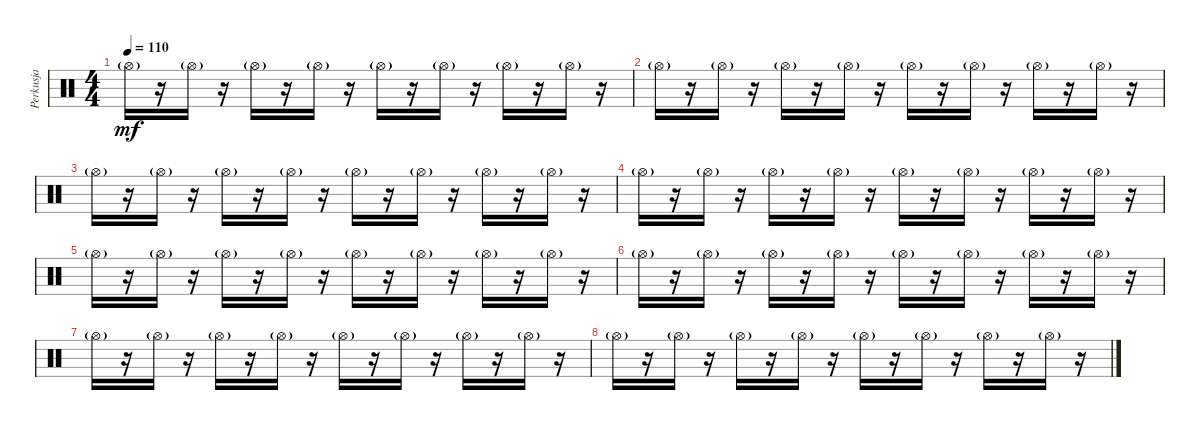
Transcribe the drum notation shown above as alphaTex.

\track ("Perkusja" "Perkusja") {instrument percussion}
\staff {score}
\articulation defaults
\ts (4 4)
\tempo 110
\clef neutral
\ks c "Hi-Hat (open)"{g}.16{dy mf}
r.16 "Hi-Hat (open)"{g}.16 r.16 "Hi-Hat (open)"{g}.16 r.16 "Hi-Hat (open)"{g}.16 r.16 "Hi-Hat (open)"{g}.16 r.16 "Hi-Hat (open)"{g}.16 r.16 "Hi-Hat (open)"{g}.16 r.16 "Hi-Hat (open)"{g}.16 r.16 |
"Hi-Hat (open)"{g}.16 r.16 "Hi-Hat (open)"{g}.16 r.16 "Hi-Hat (open)"{g}.16 r.16 "Hi-Hat (open)"{g}.16 r.16 "Hi-Hat (open)"{g}.16 r.16 "Hi-Hat (open)"{g}.16 r.16 "Hi-Hat (open)"{g}.16 r.16 "Hi-Hat (open)"{g}.16 r.16 |
"Hi-Hat (open)"{g}.16 r.16 "Hi-Hat (open)"{g}.16 r.16 "Hi-Hat (open)"{g}.16 r.16 "Hi-Hat (open)"{g}.16 r.16 "Hi-Hat (open)"{g}.16 r.16 "Hi-Hat (open)"{g}.16 r.16 "Hi-Hat (open)"{g}.16 r.16 "Hi-Hat (open)"{g}.16 r.16 |
"Hi-Hat (open)"{g}.16 r.16 "Hi-Hat (open)"{g}.16 r.16 "Hi-Hat (open)"{g}.16 r.16 "Hi-Hat (open)"{g}.16 r.16 "Hi-Hat (open)"{g}.16 r.16 "Hi-Hat (open)"{g}.16 r.16 "Hi-Hat (open)"{g}.16 r.16 "Hi-Hat (open)"{g}.16 r.16 |
"Hi-Hat (open)"{g}.16 r.16 "Hi-Hat (open)"{g}.16 r.16 "Hi-Hat (open)"{g}.16 r.16 "Hi-Hat (open)"{g}.16 r.16 "Hi-Hat (open)"{g}.16 r.16 "Hi-Hat (open)"{g}.16 r.16 "Hi-Hat (open)"{g}.16 r.16 "Hi-Hat (open)"{g}.16 r.16 |
"Hi-Hat (open)"{g}.16 r.16 "Hi-Hat (open)"{g}.16 r.16 "Hi-Hat (open)"{g}.16 r.16 "Hi-Hat (open)"{g}.16 r.16 "Hi-Hat (open)"{g}.16 r.16 "Hi-Hat (open)"{g}.16 r.16 "Hi-Hat (open)"{g}.16 r.16 "Hi-Hat (open)"{g}.16 r.16 |
"Hi-Hat (open)"{g}.16 r.16 "Hi-Hat (open)"{g}.16 r.16 "Hi-Hat (open)"{g}.16 r.16 "Hi-Hat (open)"{g}.16 r.16 "Hi-Hat (open)"{g}.16 r.16 "Hi-Hat (open)"{g}.16 r.16 "Hi-Hat (open)"{g}.16 r.16 "Hi-Hat (open)"{g}.16 r.16 |
"Hi-Hat (open)"{g}.16 r.16 "Hi-Hat (open)"{g}.16 r.16 "Hi-Hat (open)"{g}.16 r.16 "Hi-Hat (open)"{g}.16 r.16 "Hi-Hat (open)"{g}.16 r.16 "Hi-Hat (open)"{g}.16 r.16 "Hi-Hat (open)"{g}.16 r.16 "Hi-Hat (open)"{g}.16 r.16
